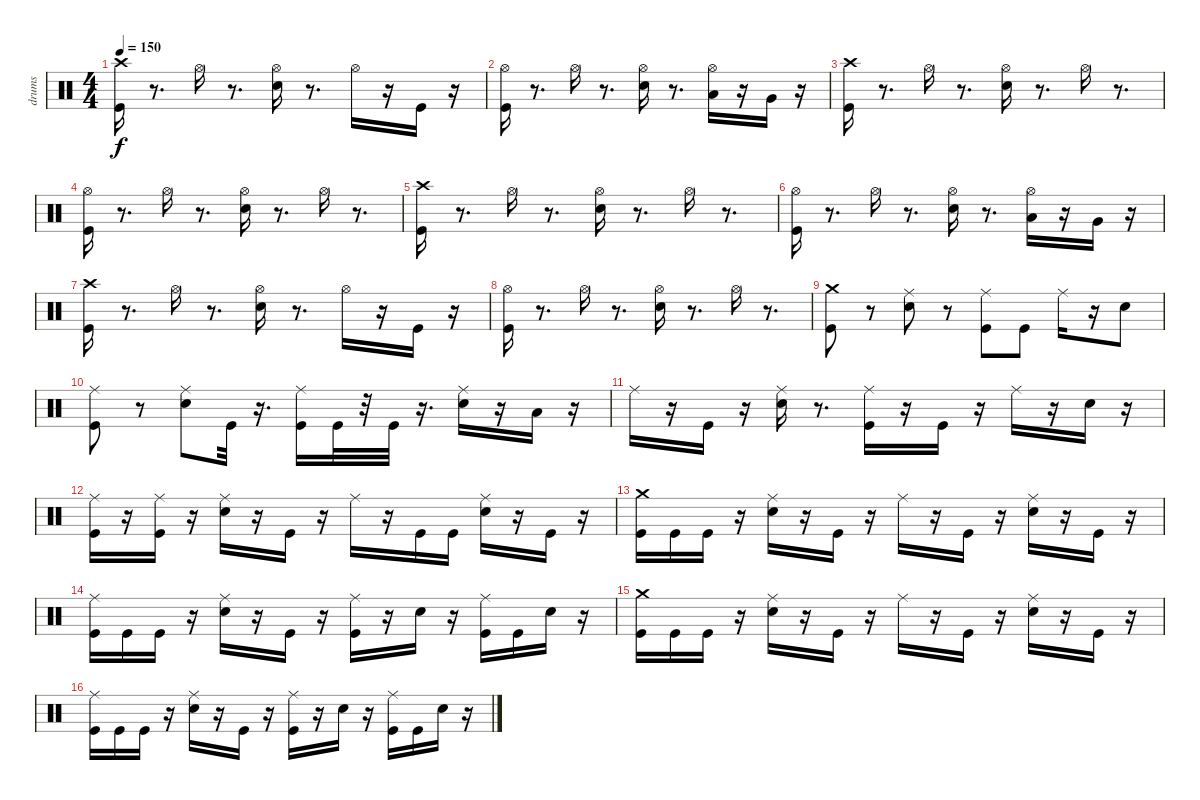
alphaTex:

\track ("drums" "drums") {instrument percussion}
\staff {score}
\articulation defaults
\ts (4 4)
\tempo 150
\clef neutral
\ks c
("Crash high (hit)" "Kick (hit)").16{dy f} r.8{d} "Hi-Hat (open)".16 r.8{d} ("Hi-Hat (open)" "Electric Snare (hit)").16 r.8{d} "Hi-Hat (open)".16 r.16 "Kick (hit)".16 r.16 |
("Hi-Hat (open)" "Kick (hit)").16 r.8{d} "Hi-Hat (open)".16 r.8{d} ("Electric Snare (hit)" "Hi-Hat (open)").16 r.8{d} ("Low Tom (hit)" "Hi-Hat (open)").16 r.16 "Very Low Tom (hit)".16 r.16 |
("Crash high (hit)" "Kick (hit)").16 r.8{d} "Hi-Hat (open)".16 r.8{d} ("Hi-Hat (open)" "Electric Snare (hit)").16 r.8{d} "Hi-Hat (open)".16 r.8{d} |
("Hi-Hat (open)" "Kick (hit)").16 r.8{d} "Hi-Hat (open)".16 r.8{d} ("Electric Snare (hit)" "Hi-Hat (open)").16 r.8{d} "Hi-Hat (open)".16 r.8{d} |
("Crash high (hit)" "Kick (hit)").16 r.8{d} "Hi-Hat (open)".16 r.8{d} ("Hi-Hat (open)" "Electric Snare (hit)").16 r.8{d} "Hi-Hat (open)".16 r.8{d} |
("Hi-Hat (open)" "Kick (hit)").16 r.8{d} "Hi-Hat (open)".16 r.8{d} ("Electric Snare (hit)" "Hi-Hat (open)").16 r.8{d} ("Low Tom (hit)" "Hi-Hat (open)").16 r.16 "Very Low Tom (hit)".16 r.16 |
("Crash high (hit)" "Kick (hit)").16 r.8{d} "Hi-Hat (open)".16 r.8{d} ("Hi-Hat (open)" "Electric Snare (hit)").16 r.8{d} "Hi-Hat (open)".16 r.16 "Kick (hit)".16 r.16 |
("Hi-Hat (open)" "Kick (hit)").16 r.8{d} "Hi-Hat (open)".16 r.8{d} ("Electric Snare (hit)" "Hi-Hat (open)").16 r.8{d} "Hi-Hat (open)".16 r.8{d} |
("Crash medium (hit)" "Kick (hit)").8 r.8 ("Ride (middle)" "Electric Snare (hit)").8 r.8 ("Ride (middle)" "Kick (hit)").8 "Kick (hit)".8 "Ride (middle)".16 r.16 "Electric Snare (hit)".8 |
("Ride (middle)" "Kick (hit)").8 r.8 ("Ride (middle)" "Electric Snare (hit)").8 "Kick (hit)".32 r.16{d} ("Ride (middle)" "Kick (hit)").16 "Kick (hit)".32 r.32 "Kick (hit)".32 r.16{d} ("Ride (middle)" "Electric Snare (hit)").16 r.16 "Low Tom (hit)".16 r.16 |
"Ride (middle)".16 r.16 "Kick (hit)".16 r.16 ("Ride (middle)" "Electric Snare (hit)").16 r.8{d} ("Ride (middle)" "Kick (hit)").16 r.16 "Kick (hit)".16 r.16 "Ride (middle)".16 r.16 "Electric Snare (hit)".16 r.16 |
("Ride (middle)" "Kick (hit)").16 r.16 ("Ride (middle)" "Kick (hit)").16 r.16 ("Ride (middle)" "Electric Snare (hit)").16 r.16 "Kick (hit)".16 r.16 "Ride (middle)".16 r.16 "Kick (hit)".16 "Kick (hit)".16 ("Ride (middle)" "Electric Snare (hit)").16 r.16 "Kick (hit)".16 r.16 |
("Crash medium (hit)" "Kick (hit)").16 "Kick (hit)".16 "Kick (hit)".16 r.16 ("Ride (middle)" "Electric Snare (hit)").16 r.16 "Kick (hit)".16 r.16 "Ride (middle)".16 r.16 "Kick (hit)".16 r.16 ("Ride (middle)" "Electric Snare (hit)").16 r.16 "Kick (hit)".16 r.16 |
("Ride (middle)" "Kick (hit)").16 "Kick (hit)".16 "Kick (hit)".16 r.16 ("Ride (middle)" "Electric Snare (hit)").16 r.16 "Kick (hit)".16 r.16 ("Ride (middle)" "Kick (hit)").16 r.16 "Electric Snare (hit)".16 r.16 ("Ride (middle)" "Kick (hit)").16 "Kick (hit)".16 "Electric Snare (hit)".16 r.16 |
("Crash medium (hit)" "Kick (hit)").16 "Kick (hit)".16 "Kick (hit)".16 r.16 ("Ride (middle)" "Electric Snare (hit)").16 r.16 "Kick (hit)".16 r.16 "Ride (middle)".16 r.16 "Kick (hit)".16 r.16 ("Ride (middle)" "Electric Snare (hit)").16 r.16 "Kick (hit)".16 r.16 |
("Ride (middle)" "Kick (hit)").16 "Kick (hit)".16 "Kick (hit)".16 r.16 ("Ride (middle)" "Electric Snare (hit)").16 r.16 "Kick (hit)".16 r.16 ("Ride (middle)" "Kick (hit)").16 r.16 "Electric Snare (hit)".16 r.16 ("Ride (middle)" "Kick (hit)").16 "Kick (hit)".16 "Electric Snare (hit)".16 r.16
